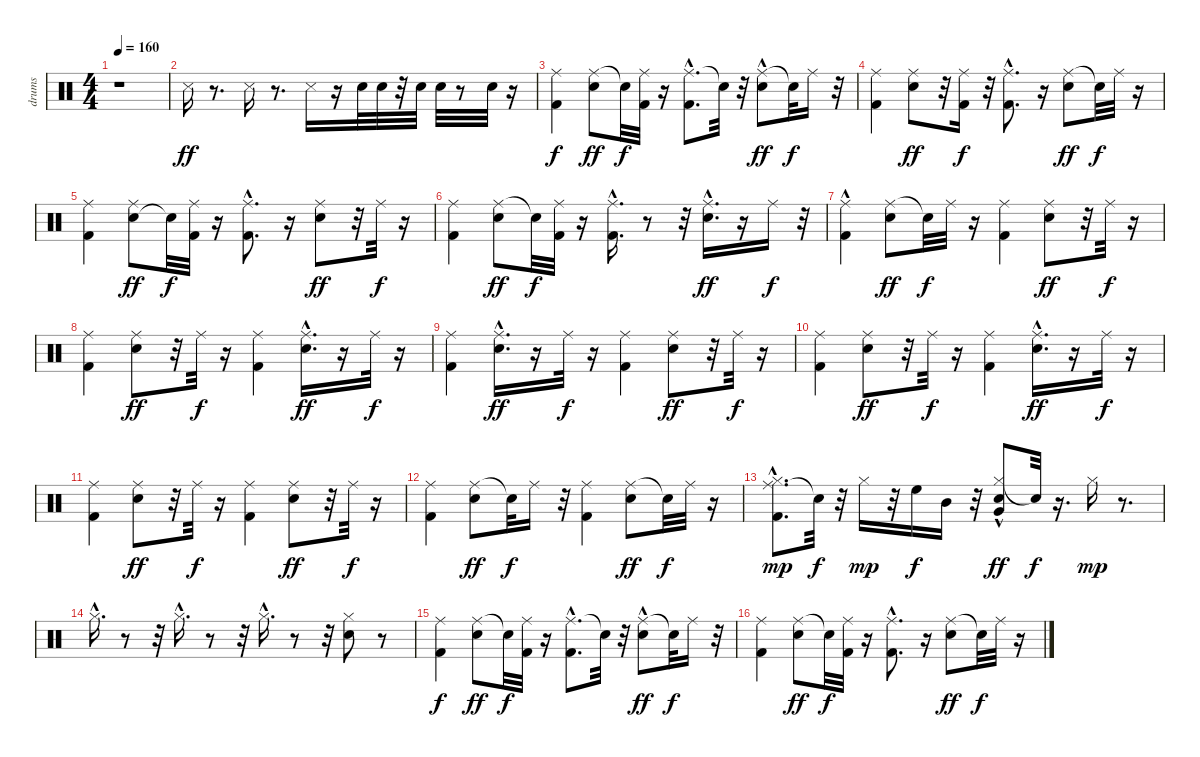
\track ("drums" "drums") {instrument percussion}
\staff {score}
\articulation defaults
\ts (4 4)
\tempo 160
\clef neutral
\ks c
r.1{dy ff} |
"Snare (side stick) 3".16{volume 12 balance 8} r.8{d} "Snare (side stick) 3".16 r.8{d} "Snare (side stick) 3".16 r.16 "Snare (hit) 2".32 "Snare (hit) 2".32 r.32 "Snare (hit) 2".32 "Snare (hit) 2".32 r.8 "Snare (hit) 2".32 r.16 |
("Kick (hit) 2" "Ride (middle)").4{dy f} ("Ride (middle)" "Snare (hit) 2").8{dy ff} "Snare (hit)"{t}.32{dy f} ("Ride (middle)" "Kick (hit) 2").32 r.16 ("Ride (middle)" "Kick (hit) 2"{hac}).8{d} "Snare (hit)"{t}.32 r.32 ("Ride (middle)"{hac} "Snare (hit) 2").8{dy ff} "Snare (hit)"{t}.32{dy f} "Ride (middle)".16 r.32 |
("Kick (hit) 2" "Ride (middle)").4 ("Ride (middle)" "Snare (hit) 2").8{dy ff} r.32 ("Ride (middle)" "Kick (hit) 2").16{dy f} r.32 ("Ride (middle)" "Kick (hit) 2"{hac}).8{d} r.16 ("Ride (middle)" "Snare (hit) 2").8{dy ff} "Snare (hit)"{t}.32{dy f} "Ride (middle)".32 r.16 |
("Ride (middle)" "Kick (hit) 2").4 ("Snare (hit) 2" "Ride (middle)").8{dy ff} "Snare (hit)"{t}.32{dy f} ("Ride (middle)" "Kick (hit) 2").32 r.16 ("Ride (middle)" "Kick (hit) 2"{hac}).8{d} r.16 ("Ride (middle)" "Snare (hit) 2").8{dy ff} r.32 "Ride (middle)".32{dy f} r.16 |
("Ride (middle)" "Kick (hit) 2").4 ("Ride (middle)" "Snare (hit) 2").8{dy ff} "Snare (hit)"{t}.32{dy f} ("Ride (middle)" "Kick (hit) 2").32 r.16 ("Ride (middle)" "Kick (hit) 2"{hac}).16{d} r.8 r.32 ("Ride (middle)" "Snare (hit) 2"{hac}).16{d dy ff} r.16 "Ride (middle)".16{dy f} r.32 |
("Ride (middle)"{hac} "Kick (hit) 2").4 ("Ride (middle)" "Snare (hit) 2").8{dy ff} "Snare (hit)"{t}.32{dy f} "Ride (middle)".32 r.16 ("Ride (middle)" "Kick (hit) 2").4 ("Snare (hit) 2" "Ride (middle)").8{dy ff} r.32 "Ride (middle)".32{dy f} r.16 |
("Ride (middle)" "Kick (hit) 2").4 ("Ride (middle)" "Snare (hit) 2").8{dy ff} r.32 "Ride (middle)".32{dy f} r.16 ("Ride (middle)" "Kick (hit) 2").4 ("Ride (middle)" "Snare (hit) 2"{hac}).16{d dy ff} r.16 "Ride (middle)".32{dy f} r.16 |
("Ride (middle)" "Kick (hit) 2").4 ("Ride (middle)" "Snare (hit) 2"{hac}).16{d dy ff} r.16 "Ride (middle)".32{dy f} r.16 ("Ride (middle)" "Kick (hit) 2").4 ("Snare (hit) 2" "Ride (middle)").8{dy ff} r.32 "Ride (middle)".32{dy f} r.16 |
("Ride (middle)" "Kick (hit) 2").4 ("Ride (middle)" "Snare (hit) 2").8{dy ff} r.32 "Ride (middle)".32{dy f} r.16 ("Ride (middle)" "Kick (hit) 2").4 ("Ride (middle)" "Snare (hit) 2"{hac}).16{d dy ff} r.16 "Ride (middle)".32{dy f} r.16 |
("Ride (middle)" "Kick (hit) 2").4 ("Snare (hit) 2" "Ride (middle)").8{dy ff} r.32 "Ride (middle)".32{dy f} r.16 ("Ride (middle)" "Kick (hit) 2").4 ("Ride (middle)" "Snare (hit) 2").8{dy ff} r.32 "Ride (middle)".32{dy f} r.16 |
("Ride (middle)" "Kick (hit) 2").4 ("Ride (middle)" "Snare (hit) 2").8{dy ff} "Snare (hit)"{t}.32{dy f} "Ride (middle)".16 r.32 ("Ride (middle)" "Kick (hit) 2").4 ("Ride (middle)" "Snare (hit) 2").8{dy ff} "Snare (hit)"{t}.32{dy f} "Ride (middle)".32 r.16 |
("Ride (middle)" "Kick (hit) 2"{hac} "Hi-Hat (closed)").8{d dy mp} "Snare (hit)"{t}.32{dy f} r.32 "Hi-Hat (closed)".16{dy mp} r.32 "High Floor Tom (hit)".16{dy f} "Mid Tom (hit)".16 r.32 ("Hi-Hat (closed)" "Snare (hit) 2" "Very Low Tom (hit)"{hac}).8{dy ff} "Snare (hit)"{t}.32{dy f} r.16{d} "Hi-Hat (closed)".16{dy mp} r.8{d} |
"Hi-Hat (closed)"{hac}.16{d} r.8 r.32 "Hi-Hat (closed)"{hac}.16{d} r.8 r.32 "Hi-Hat (closed)"{hac}.16{d} r.8 r.32 ("Snare (hit) 2" "Hi-Hat (closed)").8 r.8 |
("Kick (hit) 2" "Ride (middle)").4{dy f} ("Ride (middle)" "Snare (hit) 2").8{dy ff} "Snare (hit)"{t}.32{dy f} ("Ride (middle)" "Kick (hit) 2").32 r.16 ("Ride (middle)" "Kick (hit) 2"{hac}).8{d} "Snare (hit)"{t}.32 r.32 ("Ride (middle)"{hac} "Snare (hit) 2").8{dy ff} "Snare (hit)"{t}.32{dy f} "Ride (middle)".16 r.32 |
("Kick (hit) 2" "Ride (middle)").4 ("Ride (middle)" "Snare (hit) 2").8{dy ff} "Snare (hit)"{t}.32{dy f} ("Ride (middle)" "Kick (hit) 2").32 r.16 ("Ride (middle)" "Kick (hit) 2"{hac}).8{d} r.16 ("Ride (middle)" "Snare (hit) 2").8{dy ff} "Snare (hit)"{t}.32{dy f} "Ride (middle)".32 r.16
